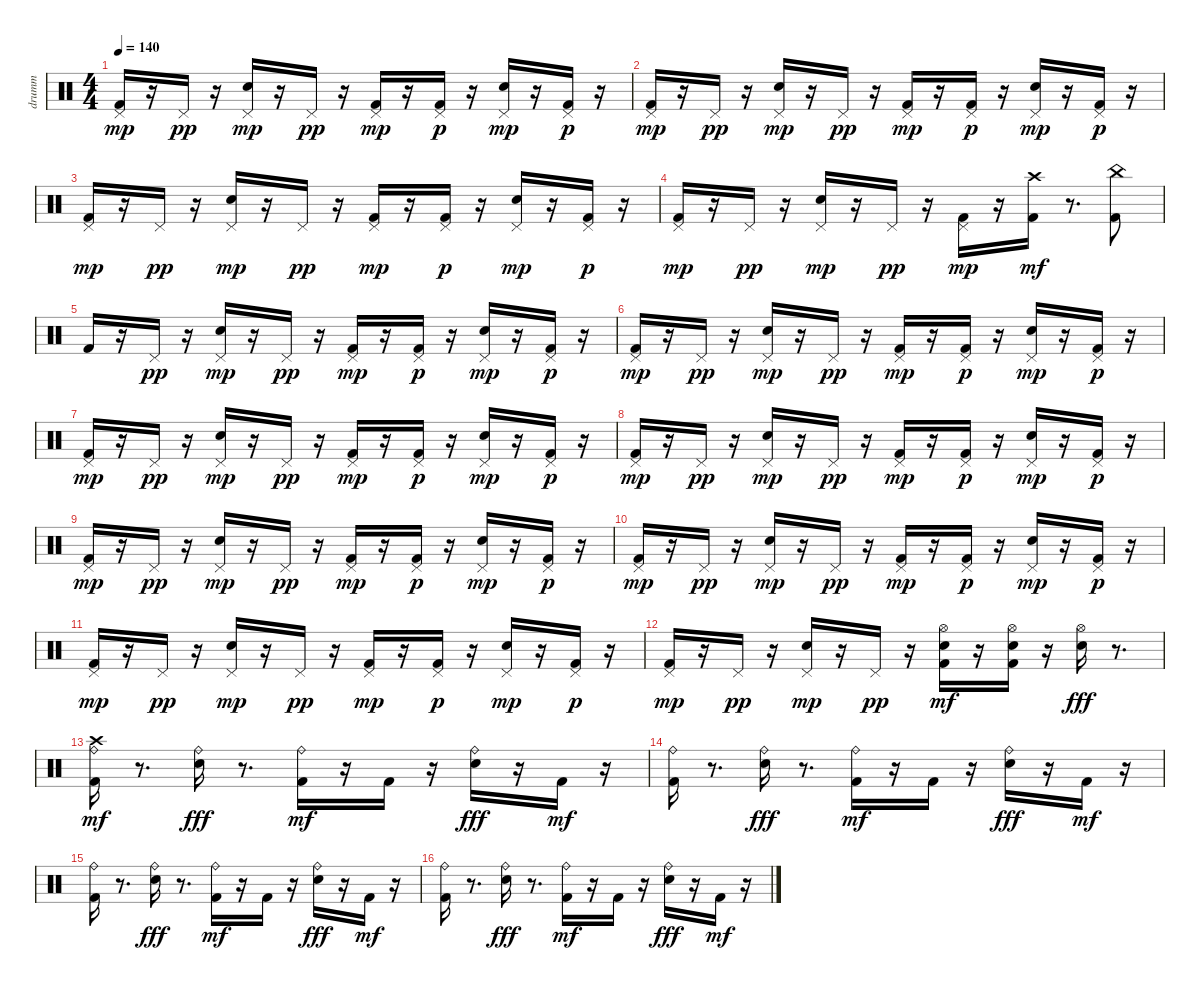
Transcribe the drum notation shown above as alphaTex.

\track ("drumm" "drumm") {instrument percussion}
\staff {score}
\articulation defaults
\ts (4 4)
\tempo 140
\clef neutral
\ks c
("Kick (hit) 2" "Pedal Hi-Hat (hit)").16{dy mp} r.16 "Pedal Hi-Hat (hit)".16{dy pp} r.16 ("Electric Snare (hit)" "Pedal Hi-Hat (hit)").16{dy mp} r.16 "Pedal Hi-Hat (hit)".16{dy pp} r.16 ("Kick (hit) 2" "Pedal Hi-Hat (hit)").16{dy mp} r.16 ("Kick (hit) 2" "Pedal Hi-Hat (hit)").16{dy p} r.16 ("Electric Snare (hit)" "Pedal Hi-Hat (hit)").16{dy mp} r.16 ("Kick (hit) 2" "Pedal Hi-Hat (hit)").16{dy p} r.16 |
("Kick (hit) 2" "Pedal Hi-Hat (hit)").16{dy mp} r.16 "Pedal Hi-Hat (hit)".16{dy pp} r.16 ("Electric Snare (hit)" "Pedal Hi-Hat (hit)").16{dy mp} r.16 "Pedal Hi-Hat (hit)".16{dy pp} r.16 ("Kick (hit) 2" "Pedal Hi-Hat (hit)").16{dy mp} r.16 ("Kick (hit) 2" "Pedal Hi-Hat (hit)").16{dy p} r.16 ("Electric Snare (hit)" "Pedal Hi-Hat (hit)").16{dy mp} r.16 ("Kick (hit) 2" "Pedal Hi-Hat (hit)").16{dy p} r.16 |
("Kick (hit) 2" "Pedal Hi-Hat (hit)").16{dy mp} r.16 "Pedal Hi-Hat (hit)".16{dy pp} r.16 ("Electric Snare (hit)" "Pedal Hi-Hat (hit)").16{dy mp} r.16 "Pedal Hi-Hat (hit)".16{dy pp} r.16 ("Kick (hit) 2" "Pedal Hi-Hat (hit)").16{dy mp} r.16 ("Kick (hit) 2" "Pedal Hi-Hat (hit)").16{dy p} r.16 ("Electric Snare (hit)" "Pedal Hi-Hat (hit)").16{dy mp} r.16 ("Kick (hit) 2" "Pedal Hi-Hat (hit)").16{dy p} r.16 |
("Kick (hit) 2" "Pedal Hi-Hat (hit)").16{dy mp} r.16 "Pedal Hi-Hat (hit)".16{dy pp} r.16 ("Electric Snare (hit)" "Pedal Hi-Hat (hit)").16{dy mp} r.16 "Pedal Hi-Hat (hit)".16{dy pp} r.16 ("Kick (hit) 2" "Pedal Hi-Hat (hit)").16{dy mp} r.16 ("Crash high (hit)" "Kick (hit) 2").16{dy mf} r.8{d} ("China (hit)" "Kick (hit) 2").8 |
"Kick (hit) 2".16 r.16 "Pedal Hi-Hat (hit)".16{dy pp} r.16 ("Electric Snare (hit)" "Pedal Hi-Hat (hit)").16{dy mp} r.16 "Pedal Hi-Hat (hit)".16{dy pp} r.16 ("Kick (hit) 2" "Pedal Hi-Hat (hit)").16{dy mp} r.16 ("Kick (hit) 2" "Pedal Hi-Hat (hit)").16{dy p} r.16 ("Electric Snare (hit)" "Pedal Hi-Hat (hit)").16{dy mp} r.16 ("Kick (hit) 2" "Pedal Hi-Hat (hit)").16{dy p} r.16 |
("Kick (hit) 2" "Pedal Hi-Hat (hit)").16{dy mp} r.16 "Pedal Hi-Hat (hit)".16{dy pp} r.16 ("Electric Snare (hit)" "Pedal Hi-Hat (hit)").16{dy mp} r.16 "Pedal Hi-Hat (hit)".16{dy pp} r.16 ("Kick (hit) 2" "Pedal Hi-Hat (hit)").16{dy mp} r.16 ("Kick (hit) 2" "Pedal Hi-Hat (hit)").16{dy p} r.16 ("Electric Snare (hit)" "Pedal Hi-Hat (hit)").16{dy mp} r.16 ("Kick (hit) 2" "Pedal Hi-Hat (hit)").16{dy p} r.16 |
("Kick (hit) 2" "Pedal Hi-Hat (hit)").16{dy mp} r.16 "Pedal Hi-Hat (hit)".16{dy pp} r.16 ("Electric Snare (hit)" "Pedal Hi-Hat (hit)").16{dy mp} r.16 "Pedal Hi-Hat (hit)".16{dy pp} r.16 ("Kick (hit) 2" "Pedal Hi-Hat (hit)").16{dy mp} r.16 ("Kick (hit) 2" "Pedal Hi-Hat (hit)").16{dy p} r.16 ("Electric Snare (hit)" "Pedal Hi-Hat (hit)").16{dy mp} r.16 ("Kick (hit) 2" "Pedal Hi-Hat (hit)").16{dy p} r.16 |
("Kick (hit) 2" "Pedal Hi-Hat (hit)").16{dy mp} r.16 "Pedal Hi-Hat (hit)".16{dy pp} r.16 ("Electric Snare (hit)" "Pedal Hi-Hat (hit)").16{dy mp} r.16 "Pedal Hi-Hat (hit)".16{dy pp} r.16 ("Kick (hit) 2" "Pedal Hi-Hat (hit)").16{dy mp} r.16 ("Kick (hit) 2" "Pedal Hi-Hat (hit)").16{dy p} r.16 ("Electric Snare (hit)" "Pedal Hi-Hat (hit)").16{dy mp} r.16 ("Kick (hit) 2" "Pedal Hi-Hat (hit)").16{dy p} r.16 |
("Kick (hit) 2" "Pedal Hi-Hat (hit)").16{dy mp} r.16 "Pedal Hi-Hat (hit)".16{dy pp} r.16 ("Electric Snare (hit)" "Pedal Hi-Hat (hit)").16{dy mp} r.16 "Pedal Hi-Hat (hit)".16{dy pp} r.16 ("Kick (hit) 2" "Pedal Hi-Hat (hit)").16{dy mp} r.16 ("Kick (hit) 2" "Pedal Hi-Hat (hit)").16{dy p} r.16 ("Electric Snare (hit)" "Pedal Hi-Hat (hit)").16{dy mp} r.16 ("Kick (hit) 2" "Pedal Hi-Hat (hit)").16{dy p} r.16 |
("Kick (hit) 2" "Pedal Hi-Hat (hit)").16{dy mp} r.16 "Pedal Hi-Hat (hit)".16{dy pp} r.16 ("Electric Snare (hit)" "Pedal Hi-Hat (hit)").16{dy mp} r.16 "Pedal Hi-Hat (hit)".16{dy pp} r.16 ("Kick (hit) 2" "Pedal Hi-Hat (hit)").16{dy mp} r.16 ("Kick (hit) 2" "Pedal Hi-Hat (hit)").16{dy p} r.16 ("Electric Snare (hit)" "Pedal Hi-Hat (hit)").16{dy mp} r.16 ("Kick (hit) 2" "Pedal Hi-Hat (hit)").16{dy p} r.16 |
("Kick (hit) 2" "Pedal Hi-Hat (hit)").16{dy mp} r.16 "Pedal Hi-Hat (hit)".16{dy pp} r.16 ("Electric Snare (hit)" "Pedal Hi-Hat (hit)").16{dy mp} r.16 "Pedal Hi-Hat (hit)".16{dy pp} r.16 ("Kick (hit) 2" "Pedal Hi-Hat (hit)").16{dy mp} r.16 ("Kick (hit) 2" "Pedal Hi-Hat (hit)").16{dy p} r.16 ("Electric Snare (hit)" "Pedal Hi-Hat (hit)").16{dy mp} r.16 ("Kick (hit) 2" "Pedal Hi-Hat (hit)").16{dy p} r.16 |
("Kick (hit) 2" "Pedal Hi-Hat (hit)").16{dy mp} r.16 "Pedal Hi-Hat (hit)".16{dy pp} r.16 ("Electric Snare (hit)" "Pedal Hi-Hat (hit)").16{dy mp} r.16 "Pedal Hi-Hat (hit)".16{dy pp} r.16 ("Hi-Hat (open)" "Electric Snare (hit)" "Kick (hit) 2").16{dy mf} r.16 ("Hi-Hat (open)" "Electric Snare (hit)" "Kick (hit) 2").16 r.16 ("Hi-Hat (open)" "Electric Snare (hit)").16{dy fff} r.8{d} |
("Crash high (hit)" "Ride (bell)" "Kick (hit) 2").16{dy mf} r.8{d} ("Ride (bell)" "Electric Snare (hit)").16{dy fff} r.8{d} ("Ride (bell)" "Kick (hit) 2").16{dy mf} r.16 "Kick (hit) 2".16 r.16 ("Ride (bell)" "Electric Snare (hit)").16{dy fff} r.16 "Kick (hit) 2".16{dy mf} r.16 |
("Ride (bell)" "Kick (hit) 2").16 r.8{d} ("Ride (bell)" "Electric Snare (hit)").16{dy fff} r.8{d} ("Ride (bell)" "Kick (hit) 2").16{dy mf} r.16 "Kick (hit) 2".16 r.16 ("Ride (bell)" "Electric Snare (hit)").16{dy fff} r.16 "Kick (hit) 2".16{dy mf} r.16 |
("Ride (bell)" "Kick (hit) 2").16 r.8{d} ("Ride (bell)" "Electric Snare (hit)").16{dy fff} r.8{d} ("Ride (bell)" "Kick (hit) 2").16{dy mf} r.16 "Kick (hit) 2".16 r.16 ("Ride (bell)" "Electric Snare (hit)").16{dy fff} r.16 "Kick (hit) 2".16{dy mf} r.16 |
("Ride (bell)" "Kick (hit) 2").16 r.8{d} ("Ride (bell)" "Electric Snare (hit)").16{dy fff} r.8{d} ("Ride (bell)" "Kick (hit) 2").16{dy mf} r.16 "Kick (hit) 2".16 r.16 ("Ride (bell)" "Electric Snare (hit)").16{dy fff} r.16 "Kick (hit) 2".16{dy mf} r.16
